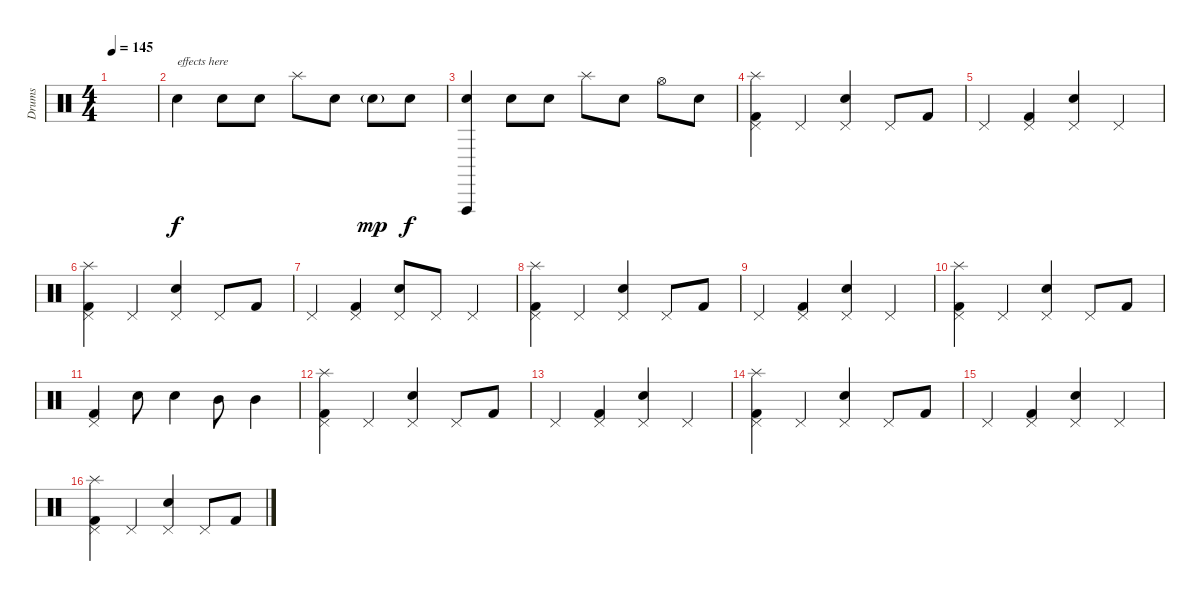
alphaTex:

\track ("Drums" "Drums") {instrument percussion}
\staff {score}
\articulation defaults
\ts (4 4)
\tempo 145
\clef neutral
\ks c
|
"Electric Snare (hit)".4{txt "effects here"} "Electric Snare (hit)".8 "Electric Snare (hit)".8 "Splash (hit)".8 "Electric Snare (hit)".8 "Electric Snare (hit)"{g}.8{dy mp} "Electric Snare (hit)".8{dy f} |
("Electric Snare (hit)" "Vibraslap (hit)").4 "Electric Snare (hit)".8 "Electric Snare (hit)".8 "Splash (hit)".8 "Electric Snare (hit)".8 "Hi-Hat (open)".8 "Electric Snare (hit)".8 |
("Splash (hit)" "Pedal Hi-Hat (hit)" "Kick (hit) 2").4 "Pedal Hi-Hat (hit)".4 ("Pedal Hi-Hat (hit)" "Snare (hit) 2").4 "Pedal Hi-Hat (hit)".8 "Kick (hit) 2".8 |
"Pedal Hi-Hat (hit)".4 ("Pedal Hi-Hat (hit)" "Kick (hit) 2").4 ("Pedal Hi-Hat (hit)" "Snare (hit) 2").4 "Pedal Hi-Hat (hit)".4 |
("Splash (hit)" "Pedal Hi-Hat (hit)" "Kick (hit) 2").4 "Pedal Hi-Hat (hit)".4 ("Pedal Hi-Hat (hit)" "Snare (hit) 2").4 "Pedal Hi-Hat (hit)".8 "Kick (hit) 2".8 |
"Pedal Hi-Hat (hit)".4 ("Pedal Hi-Hat (hit)" "Kick (hit) 2").4 ("Pedal Hi-Hat (hit)" "Snare (hit) 2").8 "Pedal Hi-Hat (hit)".8 "Pedal Hi-Hat (hit)".4 |
("Splash (hit)" "Pedal Hi-Hat (hit)" "Kick (hit) 2").4 "Pedal Hi-Hat (hit)".4 ("Pedal Hi-Hat (hit)" "Snare (hit) 2").4 "Pedal Hi-Hat (hit)".8 "Kick (hit) 2".8 |
"Pedal Hi-Hat (hit)".4 ("Pedal Hi-Hat (hit)" "Kick (hit) 2").4 ("Pedal Hi-Hat (hit)" "Snare (hit) 2").4 "Pedal Hi-Hat (hit)".4 |
("Splash (hit)" "Pedal Hi-Hat (hit)" "Kick (hit) 2").4 "Pedal Hi-Hat (hit)".4 ("Pedal Hi-Hat (hit)" "Snare (hit) 2").4 "Pedal Hi-Hat (hit)".8 "Kick (hit) 2".8 |
("Pedal Hi-Hat (hit)" "Kick (hit) 2").4 "Snare (hit) 2".8 "Snare (hit) 2".4 "Mid Tom (hit)".8 "Mid Tom (hit)".4 |
("Splash (hit)" "Pedal Hi-Hat (hit)" "Kick (hit) 2").4 "Pedal Hi-Hat (hit)".4 ("Pedal Hi-Hat (hit)" "Snare (hit) 2").4 "Pedal Hi-Hat (hit)".8 "Kick (hit) 2".8 |
"Pedal Hi-Hat (hit)".4 ("Pedal Hi-Hat (hit)" "Kick (hit) 2").4 ("Pedal Hi-Hat (hit)" "Snare (hit) 2").4 "Pedal Hi-Hat (hit)".4 |
("Splash (hit)" "Pedal Hi-Hat (hit)" "Kick (hit) 2").4 "Pedal Hi-Hat (hit)".4 ("Pedal Hi-Hat (hit)" "Snare (hit) 2").4 "Pedal Hi-Hat (hit)".8 "Kick (hit) 2".8 |
"Pedal Hi-Hat (hit)".4 ("Pedal Hi-Hat (hit)" "Kick (hit) 2").4 ("Pedal Hi-Hat (hit)" "Snare (hit) 2").4 "Pedal Hi-Hat (hit)".4 |
("Splash (hit)" "Pedal Hi-Hat (hit)" "Kick (hit) 2").4 "Pedal Hi-Hat (hit)".4 ("Pedal Hi-Hat (hit)" "Snare (hit) 2").4 "Pedal Hi-Hat (hit)".8 "Kick (hit) 2".8
